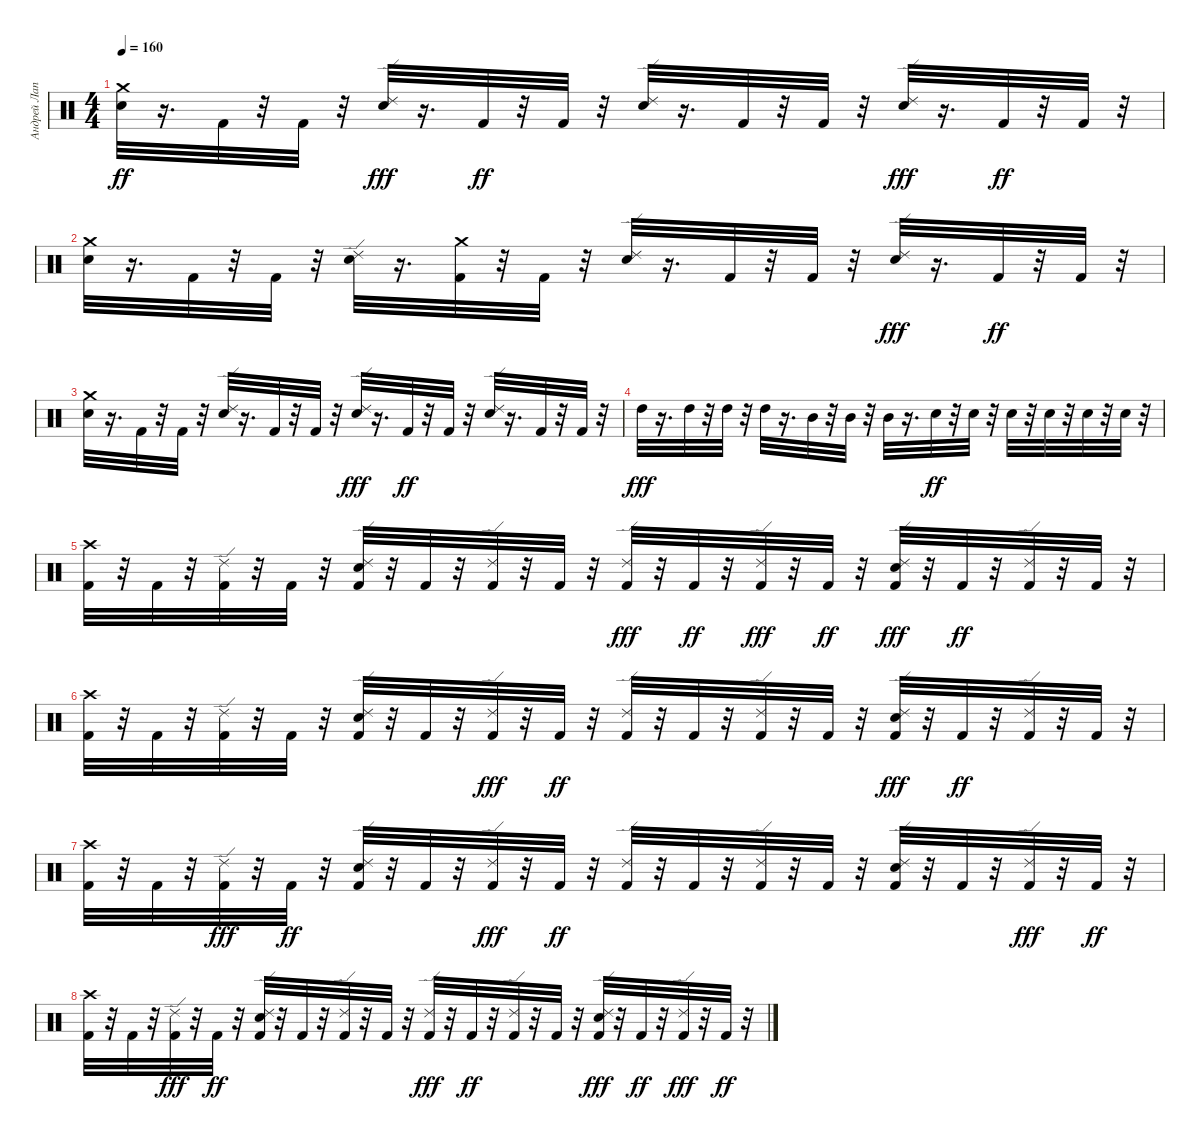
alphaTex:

\track ("Андрей Лаптев" "Андрей Лап") {instrument percussion}
\staff {score}
\articulation defaults
\ts (4 4)
\tempo 160
\clef neutral
\ks c
("Crash medium (hit)" "Electric Snare (hit)").32{dy ff} r.16{d} "Kick (hit) 2".32 r.32 "Kick (hit) 2".32 r.32 ("Electric Snare (hit)" "Ride (edge) 2").32{dy fff} r.16{d} "Kick (hit) 2".32{dy ff} r.32 "Kick (hit) 2".32 r.32 ("Ride (edge) 2" "Electric Snare (hit)").32 r.16{d} "Kick (hit) 2".32 r.32 "Kick (hit) 2".32 r.32 ("Electric Snare (hit)" "Ride (edge) 2").32{dy fff} r.16{d} "Kick (hit) 2".32{dy ff} r.32 "Kick (hit) 2".32 r.32 |
("Electric Snare (hit)" "Crash medium (hit)").32 r.16{d} "Kick (hit) 2".32 r.32 "Kick (hit) 2".32 r.32 ("Ride (edge) 2" "Electric Snare (hit)").32 r.16{d} ("Crash medium (hit)" "Kick (hit) 2").32 r.32 "Kick (hit) 2".32 r.32 ("Ride (edge) 2" "Electric Snare (hit)").32 r.16{d} "Kick (hit) 2".32 r.32 "Kick (hit) 2".32 r.32 ("Electric Snare (hit)" "Ride (edge) 2").32{dy fff} r.16{d} "Kick (hit) 2".32{dy ff} r.32 "Kick (hit) 2".32 r.32 |
("Crash medium (hit)" "Electric Snare (hit)").32 r.16{d} "Kick (hit) 2".32 r.32 "Kick (hit) 2".32 r.32 ("Ride (edge) 2" "Electric Snare (hit)").32 r.16{d} "Kick (hit) 2".32 r.32 "Kick (hit) 2".32 r.32 ("Electric Snare (hit)" "Ride (edge) 2").32{dy fff} r.16{d} "Kick (hit) 2".32{dy ff} r.32 "Kick (hit) 2".32 r.32 ("Ride (edge) 2" "Electric Snare (hit)").32 r.16{d} "Kick (hit) 2".32 r.32 "Kick (hit) 2".32 r.32 |
"High Tom (hit)".32{dy fff} r.16{d} "High Tom (hit)".32 r.32 "High Tom (hit)".32 r.32 "High Tom (hit)".32 r.16{d} "Mid Tom (hit)".32 r.32 "Mid Tom (hit)".32 r.32 "Mid Tom (hit)".32 r.16{d} "Electric Snare (hit)".32{dy ff} r.32 "Electric Snare (hit)".32 r.32 "Electric Snare (hit)".32 r.32 "Electric Snare (hit)".32 r.32 "Electric Snare (hit)".32 r.32 "Electric Snare (hit)".32 r.32 |
("Crash high (hit)" "Kick (hit) 2").32 r.32 "Kick (hit) 2".32 r.32 ("Ride (edge) 2" "Kick (hit) 2").32 r.32 "Kick (hit) 2".32 r.32 ("Electric Snare (hit)" "Ride (edge) 2" "Kick (hit) 2").32 r.32 "Kick (hit) 2".32 r.32 ("Ride (edge) 2" "Kick (hit) 2").32 r.32 "Kick (hit) 2".32 r.32 ("Kick (hit) 2" "Ride (edge) 2").32{dy fff} r.32 "Kick (hit) 2".32{dy ff} r.32 ("Kick (hit) 2" "Ride (edge) 2").32{dy fff} r.32 "Kick (hit) 2".32{dy ff} r.32 ("Electric Snare (hit)" "Kick (hit) 2" "Ride (edge) 2").32{dy fff} r.32 "Kick (hit) 2".32{dy ff} r.32 ("Ride (edge) 2" "Kick (hit) 2").32 r.32 "Kick (hit) 2".32 r.32 |
("Crash high (hit)" "Kick (hit) 2").32 r.32 "Kick (hit) 2".32 r.32 ("Ride (edge) 2" "Kick (hit) 2").32 r.32 "Kick (hit) 2".32 r.32 ("Kick (hit) 2" "Ride (edge) 2" "Electric Snare (hit)").32 r.32 "Kick (hit) 2".32 r.32 ("Kick (hit) 2" "Ride (edge) 2").32{dy fff} r.32 "Kick (hit) 2".32{dy ff} r.32 ("Ride (edge) 2" "Kick (hit) 2").32 r.32 "Kick (hit) 2".32 r.32 ("Ride (edge) 2" "Kick (hit) 2").32 r.32 "Kick (hit) 2".32 r.32 ("Kick (hit) 2" "Electric Snare (hit)" "Ride (edge) 2").32{dy fff} r.32 "Kick (hit) 2".32{dy ff} r.32 ("Ride (edge) 2" "Kick (hit) 2").32 r.32 "Kick (hit) 2".32 r.32 |
("Crash high (hit)" "Kick (hit) 2").32 r.32 "Kick (hit) 2".32 r.32 ("Kick (hit) 2" "Ride (edge) 2").32{dy fff} r.32 "Kick (hit) 2".32{dy ff} r.32 ("Electric Snare (hit)" "Ride (edge) 2" "Kick (hit) 2").32 r.32 "Kick (hit) 2".32 r.32 ("Kick (hit) 2" "Ride (edge) 2").32{dy fff} r.32 "Kick (hit) 2".32{dy ff} r.32 ("Ride (edge) 2" "Kick (hit) 2").32 r.32 "Kick (hit) 2".32 r.32 ("Ride (edge) 2" "Kick (hit) 2").32 r.32 "Kick (hit) 2".32 r.32 ("Ride (edge) 2" "Kick (hit) 2" "Electric Snare (hit)").32 r.32 "Kick (hit) 2".32 r.32 ("Kick (hit) 2" "Ride (edge) 2").32{dy fff} r.32 "Kick (hit) 2".32{dy ff} r.32 |
("Crash high (hit)" "Kick (hit) 2").32 r.32 "Kick (hit) 2".32 r.32 ("Kick (hit) 2" "Ride (edge) 2").32{dy fff} r.32 "Kick (hit) 2".32{dy ff} r.32 ("Kick (hit) 2" "Ride (edge) 2" "Electric Snare (hit)").32 r.32 "Kick (hit) 2".32 r.32 ("Ride (edge) 2" "Kick (hit) 2").32 r.32 "Kick (hit) 2".32 r.32 ("Kick (hit) 2" "Ride (edge) 2").32{dy fff} r.32 "Kick (hit) 2".32{dy ff} r.32 ("Ride (edge) 2" "Kick (hit) 2").32 r.32 "Kick (hit) 2".32 r.32 ("Kick (hit) 2" "Electric Snare (hit)" "Ride (edge) 2").32{dy fff} r.32 "Kick (hit) 2".32{dy ff} r.32 ("Kick (hit) 2" "Ride (edge) 2").32{dy fff} r.32 "Kick (hit) 2".32{dy ff} r.32
